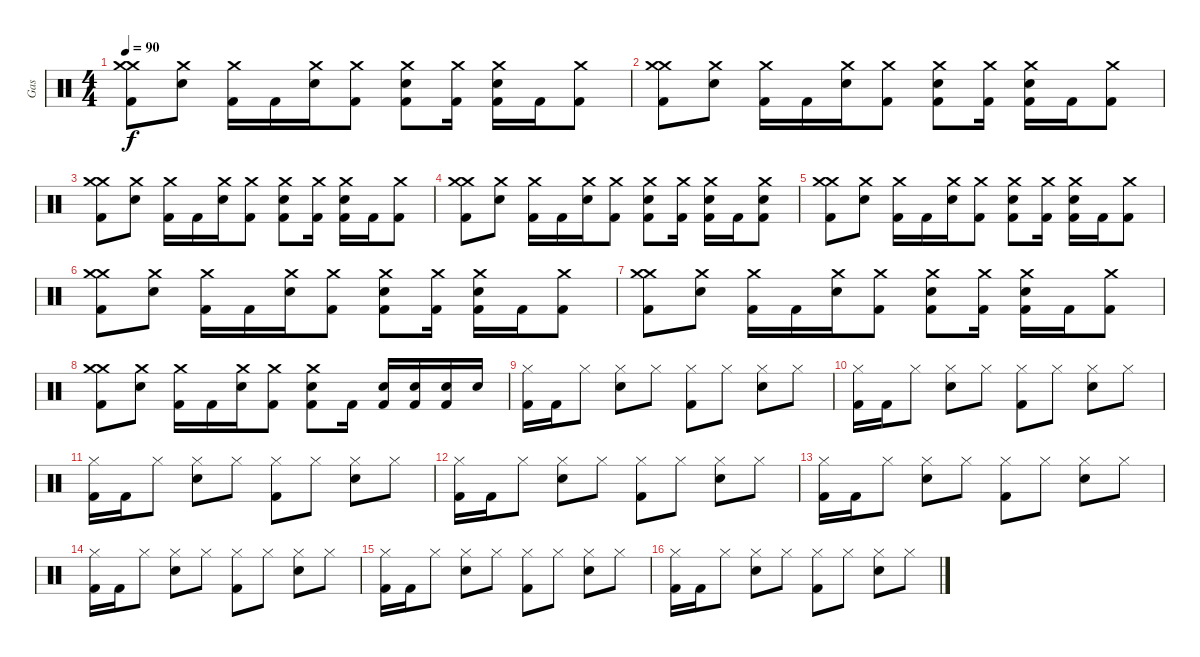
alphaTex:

\track ("Gas" "Gas") {instrument percussion}
\staff {score}
\articulation defaults
\ts (4 4)
\tempo 90
\clef neutral
\ks c
("Crash medium (hit)" "Crash medium (hit)" "Kick (hit) 2").8{dy f} ("Snare (hit) 2" "Crash medium (hit)").8 ("Crash medium (hit)" "Kick (hit) 2").16 "Kick (hit) 2".16 ("Snare (hit) 2" "Crash medium (hit)").16 ("Crash medium (hit)" "Kick (hit) 2").8 ("Snare (hit) 2" "Crash medium (hit)" "Kick (hit) 2").8 ("Crash medium (hit)" "Kick (hit) 2").16 ("Snare (hit) 2" "Crash medium (hit)" "Kick (hit) 2").16 "Kick (hit) 2".16 ("Crash medium (hit)" "Kick (hit) 2").8 |
("Crash medium (hit)" "Crash medium (hit)" "Kick (hit) 2").8 ("Snare (hit) 2" "Crash medium (hit)").8 ("Crash medium (hit)" "Kick (hit) 2").16 "Kick (hit) 2".16 ("Snare (hit) 2" "Crash medium (hit)").16 ("Crash medium (hit)" "Kick (hit) 2").8 ("Snare (hit) 2" "Crash medium (hit)" "Kick (hit) 2").8 ("Crash medium (hit)" "Kick (hit) 2").16 ("Snare (hit) 2" "Crash medium (hit)" "Kick (hit) 2").16 "Kick (hit) 2".16 ("Crash medium (hit)" "Kick (hit) 2").8 |
("Crash medium (hit)" "Crash medium (hit)" "Kick (hit) 2").8 ("Snare (hit) 2" "Crash medium (hit)").8 ("Crash medium (hit)" "Kick (hit) 2").16 "Kick (hit) 2".16 ("Snare (hit) 2" "Crash medium (hit)").16 ("Crash medium (hit)" "Kick (hit) 2").8 ("Snare (hit) 2" "Crash medium (hit)" "Kick (hit) 2").8 ("Crash medium (hit)" "Kick (hit) 2").16 ("Snare (hit) 2" "Crash medium (hit)" "Kick (hit) 2").16 "Kick (hit) 2".16 ("Crash medium (hit)" "Kick (hit) 2").8 |
("Crash medium (hit)" "Crash medium (hit)" "Kick (hit) 2").8 ("Snare (hit) 2" "Crash medium (hit)").8 ("Crash medium (hit)" "Kick (hit) 2").16 "Kick (hit) 2".16 ("Snare (hit) 2" "Crash medium (hit)").16 ("Crash medium (hit)" "Kick (hit) 2").8 ("Snare (hit) 2" "Crash medium (hit)" "Kick (hit) 2").8 ("Crash medium (hit)" "Kick (hit) 2").16 ("Snare (hit) 2" "Crash medium (hit)" "Kick (hit) 2").16 "Kick (hit) 2".16 ("Snare (hit) 2" "Crash medium (hit)" "Kick (hit) 2").8 |
("Crash medium (hit)" "Crash medium (hit)" "Kick (hit) 2").8 ("Snare (hit) 2" "Crash medium (hit)").8 ("Crash medium (hit)" "Kick (hit) 2").16 "Kick (hit) 2".16 ("Snare (hit) 2" "Crash medium (hit)").16 ("Crash medium (hit)" "Kick (hit) 2").8 ("Snare (hit) 2" "Crash medium (hit)" "Kick (hit) 2").8 ("Crash medium (hit)" "Kick (hit) 2").16 ("Snare (hit) 2" "Crash medium (hit)" "Kick (hit) 2").16 "Kick (hit) 2".16 ("Crash medium (hit)" "Kick (hit) 2").8 |
("Crash medium (hit)" "Crash medium (hit)" "Kick (hit) 2").8 ("Snare (hit) 2" "Crash medium (hit)").8 ("Crash medium (hit)" "Kick (hit) 2").16 "Kick (hit) 2".16 ("Snare (hit) 2" "Crash medium (hit)").16 ("Crash medium (hit)" "Kick (hit) 2").8 ("Snare (hit) 2" "Crash medium (hit)" "Kick (hit) 2").8 ("Crash medium (hit)" "Kick (hit) 2").16 ("Snare (hit) 2" "Crash medium (hit)" "Kick (hit) 2").16 "Kick (hit) 2".16 ("Crash medium (hit)" "Kick (hit) 2").8 |
("Crash medium (hit)" "Crash medium (hit)" "Kick (hit) 2").8 ("Snare (hit) 2" "Crash medium (hit)").8 ("Crash medium (hit)" "Kick (hit) 2").16 "Kick (hit) 2".16 ("Snare (hit) 2" "Crash medium (hit)").16 ("Crash medium (hit)" "Kick (hit) 2").8 ("Snare (hit) 2" "Crash medium (hit)" "Kick (hit) 2").8 ("Crash medium (hit)" "Kick (hit) 2").16 ("Snare (hit) 2" "Crash medium (hit)" "Kick (hit) 2").16 "Kick (hit) 2".16 ("Crash medium (hit)" "Kick (hit) 2").8 |
("Crash medium (hit)" "Crash medium (hit)" "Kick (hit) 2").8 ("Snare (hit) 2" "Crash medium (hit)").8 ("Crash medium (hit)" "Kick (hit) 2").16 "Kick (hit) 2".16 ("Snare (hit) 2" "Crash medium (hit)").16 ("Crash medium (hit)" "Kick (hit) 2").8 ("Snare (hit) 2" "Crash medium (hit)" "Kick (hit) 2").8 "Kick (hit) 2".16 ("Snare (hit) 2" "Kick (hit) 2").16 ("Snare (hit) 2" "Kick (hit) 2").16 ("Snare (hit) 2" "Kick (hit) 2").16 "Snare (hit) 2".16 |
("Hi-Hat (closed)" "Kick (hit) 2").16 "Kick (hit) 2".16 "Hi-Hat (closed)".8 ("Snare (hit) 2" "Hi-Hat (closed)").8 "Hi-Hat (closed)".8 ("Hi-Hat (closed)" "Kick (hit) 2").8 "Hi-Hat (closed)".8 ("Snare (hit) 2" "Hi-Hat (closed)").8 "Hi-Hat (closed)".8 |
("Hi-Hat (closed)" "Kick (hit) 2").16 "Kick (hit) 2".16 "Hi-Hat (closed)".8 ("Snare (hit) 2" "Hi-Hat (closed)").8 "Hi-Hat (closed)".8 ("Hi-Hat (closed)" "Kick (hit) 2").8 "Hi-Hat (closed)".8 ("Snare (hit) 2" "Hi-Hat (closed)").8 "Hi-Hat (closed)".8 |
("Hi-Hat (closed)" "Kick (hit) 2").16 "Kick (hit) 2".16 "Hi-Hat (closed)".8 ("Snare (hit) 2" "Hi-Hat (closed)").8 "Hi-Hat (closed)".8 ("Hi-Hat (closed)" "Kick (hit) 2").8 "Hi-Hat (closed)".8 ("Snare (hit) 2" "Hi-Hat (closed)").8 "Hi-Hat (closed)".8 |
("Hi-Hat (closed)" "Kick (hit) 2").16 "Kick (hit) 2".16 "Hi-Hat (closed)".8 ("Snare (hit) 2" "Hi-Hat (closed)").8 "Hi-Hat (closed)".8 ("Hi-Hat (closed)" "Kick (hit) 2").8 "Hi-Hat (closed)".8 ("Snare (hit) 2" "Hi-Hat (closed)").8 "Hi-Hat (closed)".8 |
("Hi-Hat (closed)" "Kick (hit) 2").16 "Kick (hit) 2".16 "Hi-Hat (closed)".8 ("Snare (hit) 2" "Hi-Hat (closed)").8 "Hi-Hat (closed)".8 ("Hi-Hat (closed)" "Kick (hit) 2").8 "Hi-Hat (closed)".8 ("Snare (hit) 2" "Hi-Hat (closed)").8 "Hi-Hat (closed)".8 |
("Hi-Hat (closed)" "Kick (hit) 2").16 "Kick (hit) 2".16 "Hi-Hat (closed)".8 ("Snare (hit) 2" "Hi-Hat (closed)").8 "Hi-Hat (closed)".8 ("Hi-Hat (closed)" "Kick (hit) 2").8 "Hi-Hat (closed)".8 ("Snare (hit) 2" "Hi-Hat (closed)").8 "Hi-Hat (closed)".8 |
("Hi-Hat (closed)" "Kick (hit) 2").16 "Kick (hit) 2".16 "Hi-Hat (closed)".8 ("Snare (hit) 2" "Hi-Hat (closed)").8 "Hi-Hat (closed)".8 ("Hi-Hat (closed)" "Kick (hit) 2").8 "Hi-Hat (closed)".8 ("Snare (hit) 2" "Hi-Hat (closed)").8 "Hi-Hat (closed)".8 |
("Hi-Hat (closed)" "Kick (hit) 2").16 "Kick (hit) 2".16 "Hi-Hat (closed)".8 ("Snare (hit) 2" "Hi-Hat (closed)").8 "Hi-Hat (closed)".8 ("Hi-Hat (closed)" "Kick (hit) 2").8 "Hi-Hat (closed)".8 ("Snare (hit) 2" "Hi-Hat (closed)").8 "Hi-Hat (closed)".8
